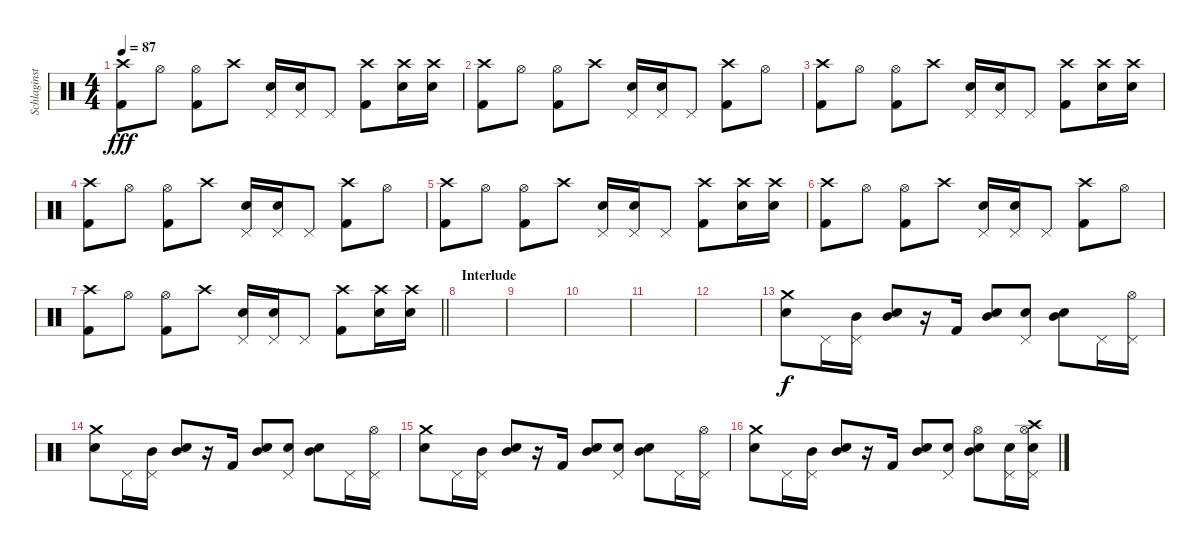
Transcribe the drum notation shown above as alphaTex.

\track ("Schlaginstrumente -  Auswahl" "Schlaginst") {instrument percussion}
\staff {score}
\articulation defaults
\ts (4 4)
\tempo 87
\clef neutral
\ks c
("Crash high (hit)" "Kick (hit) 2").8{dy fff} "Hi-Hat (open)".8 ("Hi-Hat (open)" "Kick (hit) 2").8 "Crash high (hit)".8 ("Pedal Hi-Hat (hit)" "Snare (hit) 2").16 ("Pedal Hi-Hat (hit)" "Snare (hit) 2").16 "Pedal Hi-Hat (hit)".8 ("Crash high (hit)" "Kick (hit) 2").8 ("Crash high (hit)" "Snare (hit) 2").16 ("Crash high (hit)" "Snare (hit) 2").16 |
("Crash high (hit)" "Kick (hit) 2").8 "Hi-Hat (open)".8 ("Hi-Hat (open)" "Kick (hit) 2").8 "Crash high (hit)".8 ("Pedal Hi-Hat (hit)" "Snare (hit) 2").16 ("Pedal Hi-Hat (hit)" "Snare (hit) 2").16 "Pedal Hi-Hat (hit)".8 ("Crash high (hit)" "Kick (hit) 2").8 "Hi-Hat (open)".8 |
("Crash high (hit)" "Kick (hit) 2").8 "Hi-Hat (open)".8 ("Hi-Hat (open)" "Kick (hit) 2").8 "Crash high (hit)".8 ("Pedal Hi-Hat (hit)" "Snare (hit) 2").16 ("Pedal Hi-Hat (hit)" "Snare (hit) 2").16 "Pedal Hi-Hat (hit)".8 ("Crash high (hit)" "Kick (hit) 2").8 ("Crash high (hit)" "Snare (hit) 2").16 ("Crash high (hit)" "Snare (hit) 2").16 |
("Crash high (hit)" "Kick (hit) 2").8 "Hi-Hat (open)".8 ("Hi-Hat (open)" "Kick (hit) 2").8 "Crash high (hit)".8 ("Pedal Hi-Hat (hit)" "Snare (hit) 2").16 ("Pedal Hi-Hat (hit)" "Snare (hit) 2").16 "Pedal Hi-Hat (hit)".8 ("Crash high (hit)" "Kick (hit) 2").8 "Hi-Hat (open)".8 |
("Crash high (hit)" "Kick (hit) 2").8 "Hi-Hat (open)".8 ("Hi-Hat (open)" "Kick (hit) 2").8 "Crash high (hit)".8 ("Pedal Hi-Hat (hit)" "Snare (hit) 2").16 ("Pedal Hi-Hat (hit)" "Snare (hit) 2").16 "Pedal Hi-Hat (hit)".8 ("Crash high (hit)" "Kick (hit) 2").8 ("Crash high (hit)" "Snare (hit) 2").16 ("Crash high (hit)" "Snare (hit) 2").16 |
("Crash high (hit)" "Kick (hit) 2").8 "Hi-Hat (open)".8 ("Hi-Hat (open)" "Kick (hit) 2").8 "Crash high (hit)".8 ("Pedal Hi-Hat (hit)" "Snare (hit) 2").16 ("Pedal Hi-Hat (hit)" "Snare (hit) 2").16 "Pedal Hi-Hat (hit)".8 ("Crash high (hit)" "Kick (hit) 2").8 "Hi-Hat (open)".8 |
\barLineRight lightlight
("Crash high (hit)" "Kick (hit) 2").8 "Hi-Hat (open)".8 ("Hi-Hat (open)" "Kick (hit) 2").8 "Crash high (hit)".8 ("Pedal Hi-Hat (hit)" "Snare (hit) 2").16 ("Pedal Hi-Hat (hit)" "Snare (hit) 2").16 "Pedal Hi-Hat (hit)".8 ("Crash high (hit)" "Kick (hit) 2").8 ("Crash high (hit)" "Snare (hit) 2").16 ("Crash high (hit)" "Snare (hit) 2").16 |
\section ("" "Interlude")
|
|
|
|
|
("Crash medium (hit)" "Snare (hit) 2").8{dy f} "Pedal Hi-Hat (hit)".16 ("Mid Tom (hit)" "Pedal Hi-Hat (hit)").16 ("Mid Tom (hit)" "Snare (hit) 2").8 r.16 "Kick (hit) 2".16 ("Mid Tom (hit)" "Snare (hit) 2").8 ("Snare (hit) 2" "Pedal Hi-Hat (hit)").8 ("Mid Tom (hit)" "Snare (hit) 2").8 "Pedal Hi-Hat (hit)".16 ("Hi-Hat (open)" "Pedal Hi-Hat (hit)").16 |
("Crash medium (hit)" "Snare (hit) 2").8 "Pedal Hi-Hat (hit)".16 ("Mid Tom (hit)" "Pedal Hi-Hat (hit)").16 ("Mid Tom (hit)" "Snare (hit) 2").8 r.16 "Kick (hit) 2".16 ("Mid Tom (hit)" "Snare (hit) 2").8 ("Snare (hit) 2" "Pedal Hi-Hat (hit)").8 ("Mid Tom (hit)" "Snare (hit) 2").8 "Pedal Hi-Hat (hit)".16 ("Hi-Hat (open)" "Pedal Hi-Hat (hit)").16 |
("Crash medium (hit)" "Snare (hit) 2").8 "Pedal Hi-Hat (hit)".16 ("Mid Tom (hit)" "Pedal Hi-Hat (hit)").16 ("Mid Tom (hit)" "Snare (hit) 2").8 r.16 "Kick (hit) 2".16 ("Mid Tom (hit)" "Snare (hit) 2").8 ("Snare (hit) 2" "Pedal Hi-Hat (hit)").8 ("Mid Tom (hit)" "Snare (hit) 2").8 "Pedal Hi-Hat (hit)".16 ("Hi-Hat (open)" "Pedal Hi-Hat (hit)").16 |
("Crash medium (hit)" "Snare (hit) 2").8 "Pedal Hi-Hat (hit)".16 ("Mid Tom (hit)" "Pedal Hi-Hat (hit)").16 ("Mid Tom (hit)" "Snare (hit) 2").8 r.16 "Kick (hit) 2".16 ("Mid Tom (hit)" "Snare (hit) 2").8 ("Snare (hit) 2" "Pedal Hi-Hat (hit)").8 ("Mid Tom (hit)" "Hi-Hat (open)" "Snare (hit) 2").8 ("Snare (hit) 2" "Pedal Hi-Hat (hit)").16 ("Hi-Hat (open)" "Crash high (hit)" "Snare (hit) 2" "Pedal Hi-Hat (hit)").16
